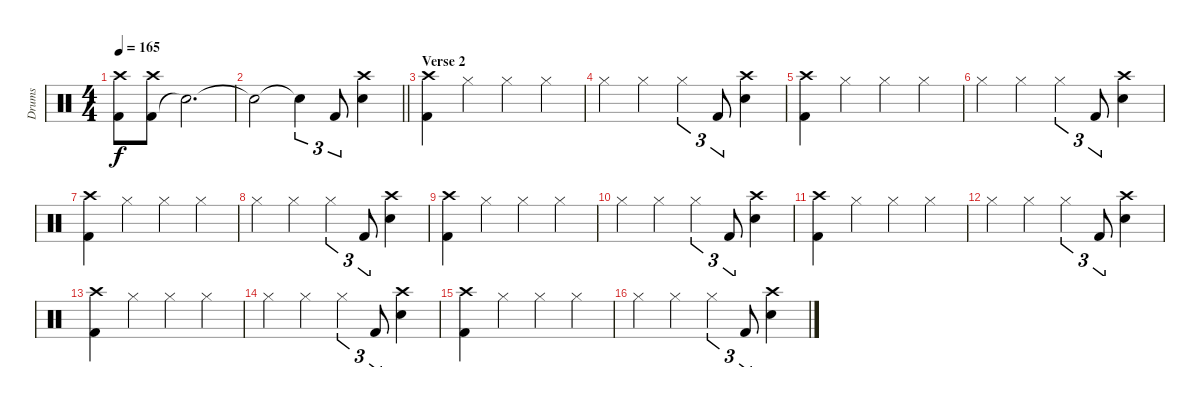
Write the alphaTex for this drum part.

\track ("Drums" "Drums") {instrument percussion}
\staff {score}
\articulation defaults
\ts (4 4)
\tempo 165
\clef neutral
\ks c
("Kick (hit) 2" "Crash high (hit)").8{dy f} ("Kick (hit) 2" "Crash high (hit)").8 "Snare (hit)"{t}.2{d} |
\barLineRight lightlight "Snare (hit)"{t}.2 "Snare (hit)"{t}.4{tu (3 2)} "Kick (hit) 2".8{tu (3 2)}
("Snare (hit) 2" "Crash high (hit)").4 |
\section ("" "Verse 2")
("Kick (hit) 2" "Crash high (hit)").4 "Hi-Hat (closed)".4 "Hi-Hat (closed)".4 "Hi-Hat (closed)".4 |
"Hi-Hat (closed)".4 "Hi-Hat (closed)".4 "Hi-Hat (closed)".4{tu (3 2)} "Kick (hit) 2".8{tu (3 2)} ("Snare (hit) 2" "Crash high (hit)").4 |
("Kick (hit) 2" "Crash high (hit)").4 "Hi-Hat (closed)".4 "Hi-Hat (closed)".4 "Hi-Hat (closed)".4 |
"Hi-Hat (closed)".4 "Hi-Hat (closed)".4 "Hi-Hat (closed)".4{tu (3 2)} "Kick (hit) 2".8{tu (3 2)} ("Snare (hit) 2" "Crash high (hit)").4 |
("Kick (hit) 2" "Crash high (hit)").4 "Hi-Hat (closed)".4 "Hi-Hat (closed)".4 "Hi-Hat (closed)".4 |
"Hi-Hat (closed)".4 "Hi-Hat (closed)".4 "Hi-Hat (closed)".4{tu (3 2)} "Kick (hit) 2".8{tu (3 2)} ("Snare (hit) 2" "Crash high (hit)").4 |
("Kick (hit) 2" "Crash high (hit)").4 "Hi-Hat (closed)".4 "Hi-Hat (closed)".4 "Hi-Hat (closed)".4 |
"Hi-Hat (closed)".4 "Hi-Hat (closed)".4 "Hi-Hat (closed)".4{tu (3 2)} "Kick (hit) 2".8{tu (3 2)} ("Snare (hit) 2" "Crash high (hit)").4 |
("Kick (hit) 2" "Crash high (hit)").4 "Hi-Hat (closed)".4 "Hi-Hat (closed)".4 "Hi-Hat (closed)".4 |
"Hi-Hat (closed)".4 "Hi-Hat (closed)".4 "Hi-Hat (closed)".4{tu (3 2)} "Kick (hit) 2".8{tu (3 2)} ("Snare (hit) 2" "Crash high (hit)").4 |
("Kick (hit) 2" "Crash high (hit)").4 "Hi-Hat (closed)".4 "Hi-Hat (closed)".4 "Hi-Hat (closed)".4 |
"Hi-Hat (closed)".4 "Hi-Hat (closed)".4 "Hi-Hat (closed)".4{tu (3 2)} "Kick (hit) 2".8{tu (3 2)} ("Snare (hit) 2" "Crash high (hit)").4 |
("Kick (hit) 2" "Crash high (hit)").4 "Hi-Hat (closed)".4 "Hi-Hat (closed)".4 "Hi-Hat (closed)".4 |
"Hi-Hat (closed)".4 "Hi-Hat (closed)".4 "Hi-Hat (closed)".4{tu (3 2)} "Kick (hit) 2".8{tu (3 2)} ("Snare (hit) 2" "Crash high (hit)").4
